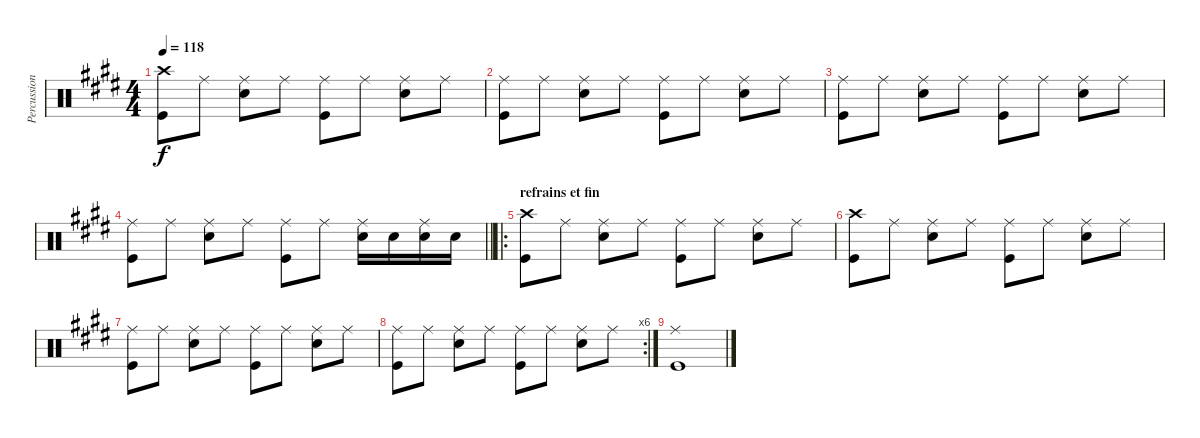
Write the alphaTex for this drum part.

\track ("Percussions" "Percussion") {instrument percussion}
\staff {score}
\articulation defaults
\ts (4 4)
\tempo 118
\clef neutral
\ks e
("Crash high (hit)" "Kick (hit)").8{dy f} "Ride (middle)".8 ("Ride (middle)" "Electric Snare (hit)").8 "Ride (middle)".8 ("Ride (middle)" "Kick (hit)").8 "Ride (middle)".8 ("Ride (middle)" "Electric Snare (hit)").8 "Ride (middle)".8 |
("Ride (middle)" "Kick (hit)").8 "Ride (middle)".8 ("Ride (middle)" "Electric Snare (hit)").8 "Ride (middle)".8 ("Ride (middle)" "Kick (hit)").8 "Ride (middle)".8 ("Ride (middle)" "Electric Snare (hit)").8 "Ride (middle)".8 |
("Ride (middle)" "Kick (hit)").8 "Ride (middle)".8 ("Ride (middle)" "Electric Snare (hit)").8 "Ride (middle)".8 ("Ride (middle)" "Kick (hit)").8 "Ride (middle)".8 ("Ride (middle)" "Electric Snare (hit)").8 "Ride (middle)".8 |
\barLineRight lightlight
("Ride (middle)" "Kick (hit)").8 "Ride (middle)".8 ("Ride (middle)" "Electric Snare (hit)").8 "Ride (middle)".8 ("Ride (middle)" "Kick (hit)").8 "Ride (middle)".8 ("Ride (middle)" "Electric Snare (hit)").16 "Electric Snare (hit)".16 ("Ride (middle)" "Electric Snare (hit)").16 "Electric Snare (hit)".16 |
\ro
\section ("" "refrains et fin")
("Crash high (hit)" "Kick (hit)").8 "Ride (middle)".8 ("Ride (middle)" "Electric Snare (hit)").8 "Ride (middle)".8 ("Ride (middle)" "Kick (hit)").8 "Ride (middle)".8 ("Ride (middle)" "Electric Snare (hit)").8 "Ride (middle)".8 |
("Crash high (hit)" "Kick (hit)").8 "Ride (middle)".8 ("Ride (middle)" "Electric Snare (hit)").8 "Ride (middle)".8 ("Ride (middle)" "Kick (hit)").8 "Ride (middle)".8 ("Ride (middle)" "Electric Snare (hit)").8 "Ride (middle)".8 |
("Ride (middle)" "Kick (hit)").8 "Ride (middle)".8 ("Ride (middle)" "Electric Snare (hit)").8 "Ride (middle)".8 ("Ride (middle)" "Kick (hit)").8 "Ride (middle)".8 ("Ride (middle)" "Electric Snare (hit)").8 "Ride (middle)".8 |
\rc 6
("Ride (middle)" "Kick (hit)").8 "Ride (middle)".8 ("Ride (middle)" "Electric Snare (hit)").8 "Ride (middle)".8 ("Ride (middle)" "Kick (hit)").8 "Ride (middle)".8 ("Ride (middle)" "Electric Snare (hit)").8 "Ride (middle)".8 |
("Ride (middle)" "Kick (hit)").1
